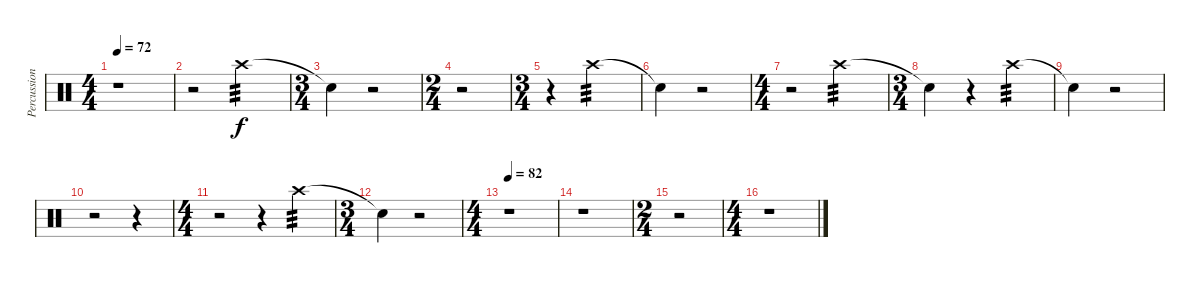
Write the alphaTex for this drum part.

\track ("Percussion" "Percussion") {instrument percussion}
\staff {score}
\articulation defaults
\ts (4 4)
\tempo 72
\clef neutral
\ks c
r.1{dy f} |
r.2 "Crash high (hit)".2{tp 3} |
\ts (3 4)
"Snare (hit)"{t}.4 r.2 |
\ts (2 4)
r.2 |
\ts (3 4)
r.4 "Crash high (hit)".2{tp 3} |
"Snare (hit)"{t}.4 r.2 |
\ts (4 4)
r.2 "Crash high (hit)".2{tp 3} |
\ts (3 4)
"Snare (hit)"{t}.4 r.4 "Crash high (hit)".4{tp 3} |
"Snare (hit)"{t}.4 r.2 |
r.2 r.4 |
\ts (4 4)
r.2 r.4 "Crash high (hit)".4{tp 3} |
\ts (3 4)
"Snare (hit)"{t}.4 r.2 |
\ts (4 4)
\tempo 82
r.1 |
r.1 |
\ts (2 4)
r.2 |
\ts (4 4)
r.1
